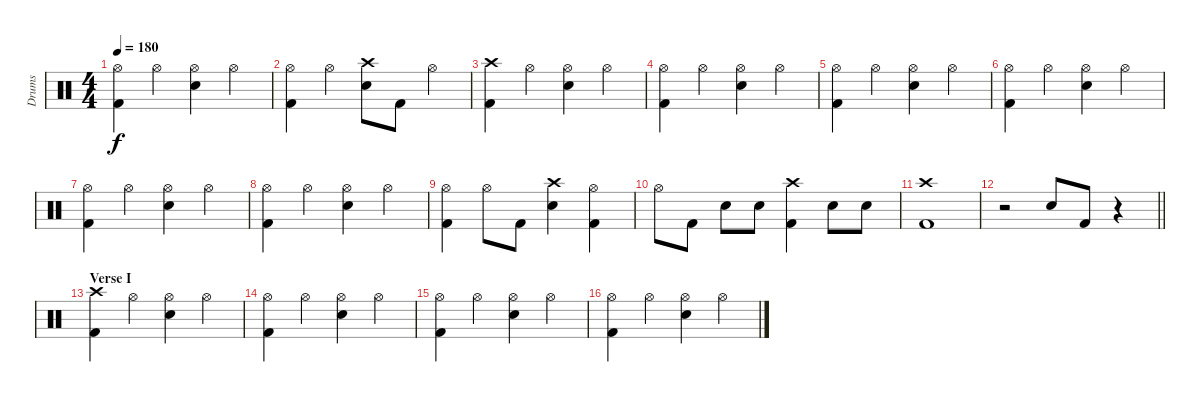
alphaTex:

\track ("Drums" "Drums") {instrument percussion}
\staff {score}
\articulation defaults
\ts (4 4)
\tempo 180
\clef neutral
\ks c
("Hi-Hat (open)" "Kick (hit) 2").4{dy f} "Hi-Hat (open)".4 ("Hi-Hat (open)" "Electric Snare (hit)").4 "Hi-Hat (open)".4 |
("Hi-Hat (open)" "Kick (hit) 2").4 "Hi-Hat (open)".4 ("Crash high (hit)" "Electric Snare (hit)").8 "Kick (hit) 2".8 "Hi-Hat (open)".4 |
("Crash high (hit)" "Kick (hit) 2").4 "Hi-Hat (open)".4 ("Hi-Hat (open)" "Electric Snare (hit)").4 "Hi-Hat (open)".4 |
("Hi-Hat (open)" "Kick (hit) 2").4 "Hi-Hat (open)".4 ("Hi-Hat (open)" "Electric Snare (hit)").4 "Hi-Hat (open)".4 |
("Hi-Hat (open)" "Kick (hit) 2").4 "Hi-Hat (open)".4 ("Hi-Hat (open)" "Electric Snare (hit)").4 "Hi-Hat (open)".4 |
("Hi-Hat (open)" "Kick (hit) 2").4 "Hi-Hat (open)".4 ("Hi-Hat (open)" "Electric Snare (hit)").4 "Hi-Hat (open)".4 |
("Hi-Hat (open)" "Kick (hit) 2").4 "Hi-Hat (open)".4 ("Hi-Hat (open)" "Electric Snare (hit)").4 "Hi-Hat (open)".4 |
("Hi-Hat (open)" "Kick (hit) 2").4 "Hi-Hat (open)".4 ("Hi-Hat (open)" "Electric Snare (hit)").4 "Hi-Hat (open)".4 |
("Hi-Hat (open)" "Kick (hit) 2").4 "Hi-Hat (open)".8 "Kick (hit) 2".8 ("Crash high (hit)" "Electric Snare (hit)").4 ("Hi-Hat (open)" "Kick (hit) 2").4 |
"Hi-Hat (open)".8 "Kick (hit) 2".8 "Electric Snare (hit)".8 "Electric Snare (hit)".8 ("Crash high (hit)" "Kick (hit) 2").4 "Electric Snare (hit)".8 "Electric Snare (hit)".8 |
("Crash high (hit)" "Kick (hit) 2").1 |
\barLineRight lightlight
r.2 "Electric Snare (hit)".8 "Kick (hit) 2".8 r.4 |
\section ("" "Verse I")
("Crash high (hit)" "Kick (hit) 2").4 "Hi-Hat (open)".4 ("Hi-Hat (open)" "Electric Snare (hit)").4 "Hi-Hat (open)".4 |
("Hi-Hat (open)" "Kick (hit) 2").4 "Hi-Hat (open)".4 ("Hi-Hat (open)" "Electric Snare (hit)").4 "Hi-Hat (open)".4 |
("Hi-Hat (open)" "Kick (hit) 2").4 "Hi-Hat (open)".4 ("Hi-Hat (open)" "Electric Snare (hit)").4 "Hi-Hat (open)".4 |
("Hi-Hat (open)" "Kick (hit) 2").4 "Hi-Hat (open)".4 ("Hi-Hat (open)" "Electric Snare (hit)").4 "Hi-Hat (open)".4
